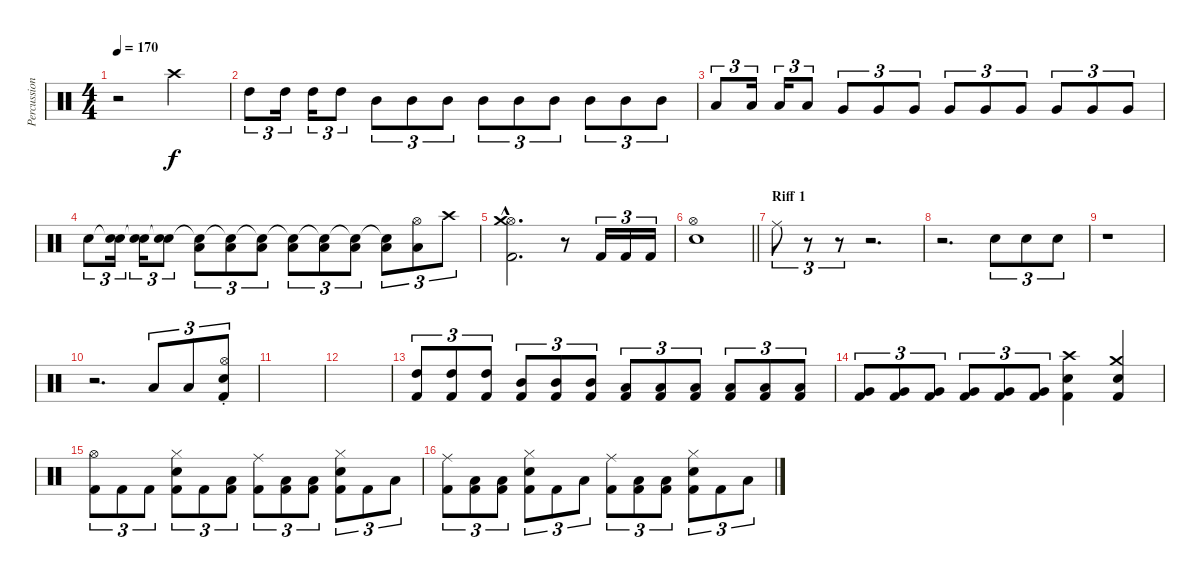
\track ("Percussions" "Percussion") {instrument percussion}
\staff {score}
\articulation defaults
\ts (4 4)
\tempo 170
\clef neutral
\ks c
r.2{dy f} "Crash high (hit)".2{volume 13} |
"High Tom (hit)".8{tu (3 2)} "High Tom (hit)".16{tu (3 2)} "High Tom (hit)".16{tu (3 2)} "High Tom (hit)".8{tu (3 2)} "Mid Tom (hit)".8{tu (3 2)} "Mid Tom (hit)".8{tu (3 2)} "Mid Tom (hit)".8{tu (3 2)} "Mid Tom (hit)".8{tu (3 2)} "Mid Tom (hit)".8{tu (3 2)} "Mid Tom (hit)".8{tu (3 2)} "Mid Tom (hit)".8{tu (3 2)} "Mid Tom (hit)".8{tu (3 2)} "Mid Tom (hit)".8{tu (3 2)} |
"Low Tom (hit)".8{tu (3 2)} "Low Tom (hit)".16{tu (3 2)} "Low Tom (hit)".16{tu (3 2)} "Low Tom (hit)".8{tu (3 2)} "Very Low Tom (hit)".8{tu (3 2)} "Very Low Tom (hit)".8{tu (3 2)} "Very Low Tom (hit)".8{tu (3 2)} "Very Low Tom (hit)".8{tu (3 2)} "Very Low Tom (hit)".8{tu (3 2)} "Very Low Tom (hit)".8{tu (3 2)} "Very Low Tom (hit)".8{tu (3 2)} "Very Low Tom (hit)".8{tu (3 2)} "Very Low Tom (hit)".8{tu (3 2)} |
"Snare (hit) 2".8{tu (3 2)} ("Snare (hit)"{t} "Snare (hit) 2").16{tu (3 2)} ("Snare (hit)"{t} "Snare (hit) 2").16{tu (3 2)} ("Snare (hit)"{t} "Snare (hit) 2").8{tu (3 2)} ("Snare (hit)"{t} "Low Floor Tom (hit)").8{tu (3 2)} ("Snare (hit)"{t} "Low Floor Tom (hit)").8{tu (3 2)} ("Snare (hit)"{t} "Low Floor Tom (hit)").8{tu (3 2)} ("Snare (hit)"{t} "Low Floor Tom (hit)").8{tu (3 2)} ("Snare (hit)"{t} "Low Floor Tom (hit)").8{tu (3 2)} ("Snare (hit)"{t} "Low Floor Tom (hit)").8{tu (3 2)} ("Snare (hit)"{t} "Low Floor Tom (hit)").8{tu (3 2)} ("Hi-Hat (open)" "Low Floor Tom (hit)").8{tu (3 2)} "Crash high (hit)".8{tu (3 2)} |
("Hi-Hat (open)"{hac} "Crash medium (hit)"{hac} "Kick (hit) 2"{hac}).2{d} r.8 "Kick (hit) 2".16{tu (3 2)} "Kick (hit) 2".16{tu (3 2)} "Kick (hit) 2".16{tu (3 2)} |
\barLineRight lightlight
("Hi-Hat (open)" "Snare (hit) 2").1 |
\section ("" "Riff 1")
"Ride (middle)".8{tu (3 2)} r.8{tu (3 2)} r.8{tu (3 2)} r.2{d} |
r.2{d} "Snare (hit) 2".8{tu (3 2)} "Snare (hit) 2".8{tu (3 2)} "Snare (hit) 2".8{tu (3 2)} |
r.1 |
r.2{d} "Low Tom (hit)".8{tu (3 2)} "Low Tom (hit)".8{tu (3 2)} ("Hi-Hat (open)"{st} "Snare (hit) 2" "Kick (hit) 2").8{tu (3 2)} |
|
|
("High Tom (hit)" "Kick (hit) 2").8{tu (3 2)} ("High Tom (hit)" "Kick (hit) 2").8{tu (3 2)} ("High Tom (hit)" "Kick (hit) 2").8{tu (3 2)} ("Mid Tom (hit)" "Kick (hit) 2").8{tu (3 2)} ("Mid Tom (hit)" "Kick (hit) 2").8{tu (3 2)} ("Mid Tom (hit)" "Kick (hit) 2").8{tu (3 2)} ("Low Tom (hit)" "Kick (hit) 2").8{tu (3 2)} ("Low Tom (hit)" "Kick (hit) 2").8{tu (3 2)} ("Low Tom (hit)" "Kick (hit) 2").8{tu (3 2)} ("Low Tom (hit)" "Kick (hit) 2").8{tu (3 2)} ("Low Tom (hit)" "Kick (hit) 2").8{tu (3 2)} ("Low Tom (hit)" "Kick (hit) 2").8{tu (3 2)} |
("Very Low Tom (hit)" "Kick (hit) 2").8{tu (3 2)} ("Very Low Tom (hit)" "Kick (hit) 2").8{tu (3 2)} ("Very Low Tom (hit)" "Kick (hit) 2").8{tu (3 2)} ("Very Low Tom (hit)" "Kick (hit) 2").8{tu (3 2)} ("Very Low Tom (hit)" "Kick (hit) 2").8{tu (3 2)} ("Very Low Tom (hit)" "Kick (hit) 2").8{tu (3 2)} ("Crash high (hit)" "Snare (hit) 2" "Kick (hit) 2").4 ("Crash medium (hit)" "Snare (hit) 2" "Kick (hit) 2").4 |
("Hi-Hat (open)" "Kick (hit) 2").8{tu (3 2)} "Kick (hit) 2".8{tu (3 2)} "Kick (hit) 2".8{tu (3 2)} ("Hi-Hat (closed)" "Snare (hit) 2" "Kick (hit) 2").8{tu (3 2)} "Kick (hit) 2".8{tu (3 2)} ("Low Floor Tom (hit)" "Kick (hit) 2").8{tu (3 2)} ("Ride (middle)" "Kick (hit) 2").8{tu (3 2)} ("Low Floor Tom (hit)" "Kick (hit) 2").8{tu (3 2)} ("Low Floor Tom (hit)" "Kick (hit) 2").8{tu (3 2)} ("Hi-Hat (closed)" "Snare (hit) 2" "Kick (hit) 2").8{tu (3 2)} "Kick (hit) 2".8{tu (3 2)} "Low Floor Tom (hit)".8{tu (3 2)} |
("Ride (middle)" "Kick (hit) 2").8{tu (3 2)} ("Low Floor Tom (hit)" "Kick (hit) 2").8{tu (3 2)} ("Low Floor Tom (hit)" "Kick (hit) 2").8{tu (3 2)} ("Hi-Hat (closed)" "Snare (hit) 2" "Kick (hit) 2").8{tu (3 2)} "Kick (hit) 2".8{tu (3 2)} "Low Floor Tom (hit)".8{tu (3 2)} ("Ride (middle)" "Kick (hit) 2").8{tu (3 2)} ("Low Floor Tom (hit)" "Kick (hit) 2").8{tu (3 2)} ("Low Floor Tom (hit)" "Kick (hit) 2").8{tu (3 2)} ("Hi-Hat (closed)" "Snare (hit) 2" "Kick (hit) 2").8{tu (3 2)} "Kick (hit) 2".8{tu (3 2)} "Low Floor Tom (hit)".8{tu (3 2)}
